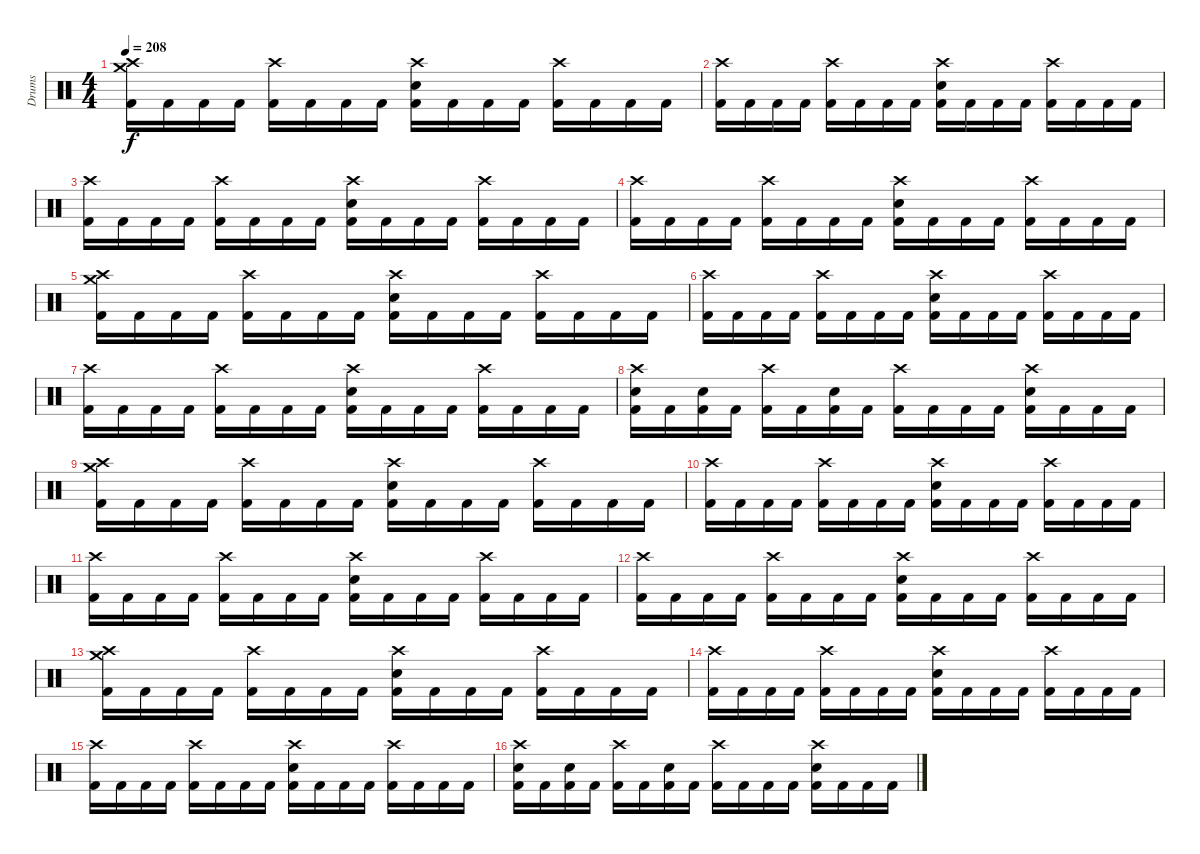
\track ("Drums" "Drums") {instrument percussion}
\staff {score}
\articulation defaults
\ts (4 4)
\tempo 208
\clef neutral
\ks c
("Crash high (hit)" "Crash medium (hit)" "Kick (hit) 2").16{dy f} "Kick (hit) 2".16 "Kick (hit) 2".16 "Kick (hit) 2".16 ("Crash high (hit)" "Kick (hit) 2").16 "Kick (hit) 2".16 "Kick (hit) 2".16 "Kick (hit) 2".16 ("Crash high (hit)" "Electric Snare (hit)" "Kick (hit) 2").16 "Kick (hit) 2".16 "Kick (hit) 2".16 "Kick (hit) 2".16 ("Crash high (hit)" "Kick (hit) 2").16 "Kick (hit) 2".16 "Kick (hit) 2".16 "Kick (hit) 2".16 |
("Crash high (hit)" "Kick (hit) 2").16 "Kick (hit) 2".16 "Kick (hit) 2".16 "Kick (hit) 2".16 ("Crash high (hit)" "Kick (hit) 2").16 "Kick (hit) 2".16 "Kick (hit) 2".16 "Kick (hit) 2".16 ("Crash high (hit)" "Electric Snare (hit)" "Kick (hit) 2").16 "Kick (hit) 2".16 "Kick (hit) 2".16 "Kick (hit) 2".16 ("Crash high (hit)" "Kick (hit) 2").16 "Kick (hit) 2".16 "Kick (hit) 2".16 "Kick (hit) 2".16 |
("Crash high (hit)" "Kick (hit) 2").16 "Kick (hit) 2".16 "Kick (hit) 2".16 "Kick (hit) 2".16 ("Crash high (hit)" "Kick (hit) 2").16 "Kick (hit) 2".16 "Kick (hit) 2".16 "Kick (hit) 2".16 ("Crash high (hit)" "Electric Snare (hit)" "Kick (hit) 2").16 "Kick (hit) 2".16 "Kick (hit) 2".16 "Kick (hit) 2".16 ("Crash high (hit)" "Kick (hit) 2").16 "Kick (hit) 2".16 "Kick (hit) 2".16 "Kick (hit) 2".16 |
("Crash high (hit)" "Kick (hit) 2").16 "Kick (hit) 2".16 "Kick (hit) 2".16 "Kick (hit) 2".16 ("Crash high (hit)" "Kick (hit) 2").16 "Kick (hit) 2".16 "Kick (hit) 2".16 "Kick (hit) 2".16 ("Crash high (hit)" "Electric Snare (hit)" "Kick (hit) 2").16 "Kick (hit) 2".16 "Kick (hit) 2".16 "Kick (hit) 2".16 ("Crash high (hit)" "Kick (hit) 2").16 "Kick (hit) 2".16 "Kick (hit) 2".16 "Kick (hit) 2".16 |
("Crash high (hit)" "Crash medium (hit)" "Kick (hit) 2").16 "Kick (hit) 2".16 "Kick (hit) 2".16 "Kick (hit) 2".16 ("Crash high (hit)" "Kick (hit) 2").16 "Kick (hit) 2".16 "Kick (hit) 2".16 "Kick (hit) 2".16 ("Crash high (hit)" "Electric Snare (hit)" "Kick (hit) 2").16 "Kick (hit) 2".16 "Kick (hit) 2".16 "Kick (hit) 2".16 ("Crash high (hit)" "Kick (hit) 2").16 "Kick (hit) 2".16 "Kick (hit) 2".16 "Kick (hit) 2".16 |
("Crash high (hit)" "Kick (hit) 2").16 "Kick (hit) 2".16 "Kick (hit) 2".16 "Kick (hit) 2".16 ("Crash high (hit)" "Kick (hit) 2").16 "Kick (hit) 2".16 "Kick (hit) 2".16 "Kick (hit) 2".16 ("Crash high (hit)" "Electric Snare (hit)" "Kick (hit) 2").16 "Kick (hit) 2".16 "Kick (hit) 2".16 "Kick (hit) 2".16 ("Crash high (hit)" "Kick (hit) 2").16 "Kick (hit) 2".16 "Kick (hit) 2".16 "Kick (hit) 2".16 |
("Crash high (hit)" "Kick (hit) 2").16 "Kick (hit) 2".16 "Kick (hit) 2".16 "Kick (hit) 2".16 ("Crash high (hit)" "Kick (hit) 2").16 "Kick (hit) 2".16 "Kick (hit) 2".16 "Kick (hit) 2".16 ("Crash high (hit)" "Electric Snare (hit)" "Kick (hit) 2").16 "Kick (hit) 2".16 "Kick (hit) 2".16 "Kick (hit) 2".16 ("Crash high (hit)" "Kick (hit) 2").16 "Kick (hit) 2".16 "Kick (hit) 2".16 "Kick (hit) 2".16 |
("Crash high (hit)" "Electric Snare (hit)" "Kick (hit) 2").16 "Kick (hit) 2".16 ("Electric Snare (hit)" "Kick (hit) 2").16 "Kick (hit) 2".16 ("Crash high (hit)" "Kick (hit) 2").16 "Kick (hit) 2".16 ("Electric Snare (hit)" "Kick (hit) 2").16 "Kick (hit) 2".16 ("Crash high (hit)" "Kick (hit) 2").16 "Kick (hit) 2".16 "Kick (hit) 2".16 "Kick (hit) 2".16 ("Crash high (hit)" "Electric Snare (hit)" "Kick (hit) 2").16 "Kick (hit) 2".16 "Kick (hit) 2".16 "Kick (hit) 2".16 |
("Crash high (hit)" "Crash medium (hit)" "Kick (hit) 2").16 "Kick (hit) 2".16 "Kick (hit) 2".16 "Kick (hit) 2".16 ("Crash high (hit)" "Kick (hit) 2").16 "Kick (hit) 2".16 "Kick (hit) 2".16 "Kick (hit) 2".16 ("Crash high (hit)" "Electric Snare (hit)" "Kick (hit) 2").16 "Kick (hit) 2".16 "Kick (hit) 2".16 "Kick (hit) 2".16 ("Crash high (hit)" "Kick (hit) 2").16 "Kick (hit) 2".16 "Kick (hit) 2".16 "Kick (hit) 2".16 |
("Crash high (hit)" "Kick (hit) 2").16 "Kick (hit) 2".16 "Kick (hit) 2".16 "Kick (hit) 2".16 ("Crash high (hit)" "Kick (hit) 2").16 "Kick (hit) 2".16 "Kick (hit) 2".16 "Kick (hit) 2".16 ("Crash high (hit)" "Electric Snare (hit)" "Kick (hit) 2").16 "Kick (hit) 2".16 "Kick (hit) 2".16 "Kick (hit) 2".16 ("Crash high (hit)" "Kick (hit) 2").16 "Kick (hit) 2".16 "Kick (hit) 2".16 "Kick (hit) 2".16 |
("Crash high (hit)" "Kick (hit) 2").16 "Kick (hit) 2".16 "Kick (hit) 2".16 "Kick (hit) 2".16 ("Crash high (hit)" "Kick (hit) 2").16 "Kick (hit) 2".16 "Kick (hit) 2".16 "Kick (hit) 2".16 ("Crash high (hit)" "Electric Snare (hit)" "Kick (hit) 2").16 "Kick (hit) 2".16 "Kick (hit) 2".16 "Kick (hit) 2".16 ("Crash high (hit)" "Kick (hit) 2").16 "Kick (hit) 2".16 "Kick (hit) 2".16 "Kick (hit) 2".16 |
("Crash high (hit)" "Kick (hit) 2").16 "Kick (hit) 2".16 "Kick (hit) 2".16 "Kick (hit) 2".16 ("Crash high (hit)" "Kick (hit) 2").16 "Kick (hit) 2".16 "Kick (hit) 2".16 "Kick (hit) 2".16 ("Crash high (hit)" "Electric Snare (hit)" "Kick (hit) 2").16 "Kick (hit) 2".16 "Kick (hit) 2".16 "Kick (hit) 2".16 ("Crash high (hit)" "Kick (hit) 2").16 "Kick (hit) 2".16 "Kick (hit) 2".16 "Kick (hit) 2".16 |
("Crash high (hit)" "Crash medium (hit)" "Kick (hit) 2").16 "Kick (hit) 2".16 "Kick (hit) 2".16 "Kick (hit) 2".16 ("Crash high (hit)" "Kick (hit) 2").16 "Kick (hit) 2".16 "Kick (hit) 2".16 "Kick (hit) 2".16 ("Crash high (hit)" "Electric Snare (hit)" "Kick (hit) 2").16 "Kick (hit) 2".16 "Kick (hit) 2".16 "Kick (hit) 2".16 ("Crash high (hit)" "Kick (hit) 2").16 "Kick (hit) 2".16 "Kick (hit) 2".16 "Kick (hit) 2".16 |
("Crash high (hit)" "Kick (hit) 2").16 "Kick (hit) 2".16 "Kick (hit) 2".16 "Kick (hit) 2".16 ("Crash high (hit)" "Kick (hit) 2").16 "Kick (hit) 2".16 "Kick (hit) 2".16 "Kick (hit) 2".16 ("Crash high (hit)" "Electric Snare (hit)" "Kick (hit) 2").16 "Kick (hit) 2".16 "Kick (hit) 2".16 "Kick (hit) 2".16 ("Crash high (hit)" "Kick (hit) 2").16 "Kick (hit) 2".16 "Kick (hit) 2".16 "Kick (hit) 2".16 |
("Crash high (hit)" "Kick (hit) 2").16 "Kick (hit) 2".16 "Kick (hit) 2".16 "Kick (hit) 2".16 ("Crash high (hit)" "Kick (hit) 2").16 "Kick (hit) 2".16 "Kick (hit) 2".16 "Kick (hit) 2".16 ("Crash high (hit)" "Electric Snare (hit)" "Kick (hit) 2").16 "Kick (hit) 2".16 "Kick (hit) 2".16 "Kick (hit) 2".16 ("Crash high (hit)" "Kick (hit) 2").16 "Kick (hit) 2".16 "Kick (hit) 2".16 "Kick (hit) 2".16 |
("Crash high (hit)" "Electric Snare (hit)" "Kick (hit) 2").16 "Kick (hit) 2".16 ("Electric Snare (hit)" "Kick (hit) 2").16 "Kick (hit) 2".16 ("Crash high (hit)" "Kick (hit) 2").16 "Kick (hit) 2".16 ("Electric Snare (hit)" "Kick (hit) 2").16 "Kick (hit) 2".16 ("Crash high (hit)" "Kick (hit) 2").16 "Kick (hit) 2".16 "Kick (hit) 2".16 "Kick (hit) 2".16 ("Crash high (hit)" "Electric Snare (hit)" "Kick (hit) 2").16 "Kick (hit) 2".16 "Kick (hit) 2".16 "Kick (hit) 2".16
